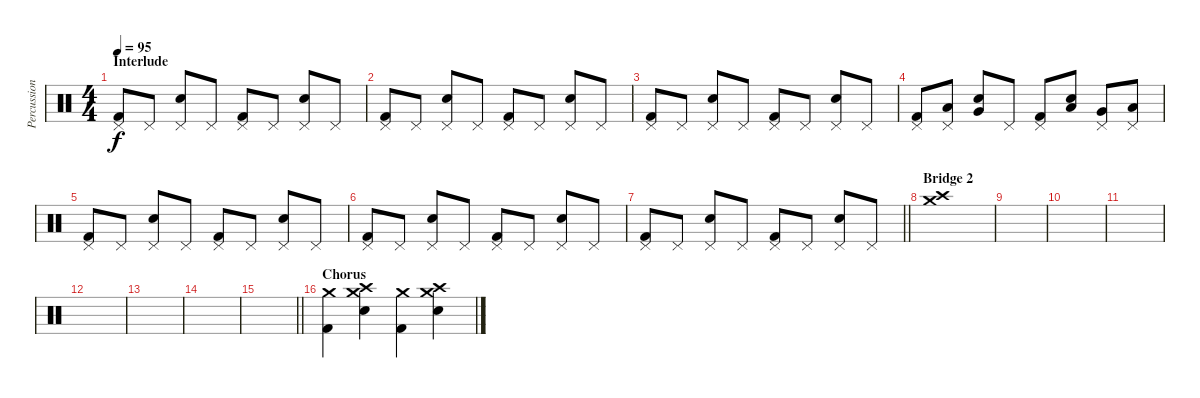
\track ("Percussion" "Percussion") {instrument percussion}
\staff {score}
\articulation defaults
\ts (4 4)
\section ("" "Interlude")
\tempo 95
\clef neutral
\ks c
("Pedal Hi-Hat (hit)" "Kick (hit) 2").8{dy f} "Pedal Hi-Hat (hit)".8 ("Pedal Hi-Hat (hit)" "Snare (hit) 2").8 "Pedal Hi-Hat (hit)".8 ("Pedal Hi-Hat (hit)" "Kick (hit) 2").8 "Pedal Hi-Hat (hit)".8 ("Pedal Hi-Hat (hit)" "Snare (hit) 2").8 "Pedal Hi-Hat (hit)".8 |
("Pedal Hi-Hat (hit)" "Kick (hit) 2").8 "Pedal Hi-Hat (hit)".8 ("Pedal Hi-Hat (hit)" "Snare (hit) 2").8 "Pedal Hi-Hat (hit)".8 ("Pedal Hi-Hat (hit)" "Kick (hit) 2").8 "Pedal Hi-Hat (hit)".8 ("Pedal Hi-Hat (hit)" "Snare (hit) 2").8 "Pedal Hi-Hat (hit)".8 |
("Pedal Hi-Hat (hit)" "Kick (hit) 2").8 "Pedal Hi-Hat (hit)".8 ("Pedal Hi-Hat (hit)" "Snare (hit) 2").8 "Pedal Hi-Hat (hit)".8 ("Pedal Hi-Hat (hit)" "Kick (hit) 2").8 "Pedal Hi-Hat (hit)".8 ("Pedal Hi-Hat (hit)" "Snare (hit) 2").8 "Pedal Hi-Hat (hit)".8 |
("Pedal Hi-Hat (hit)" "Kick (hit) 2").8 ("Pedal Hi-Hat (hit)" "Low Tom (hit)").8 ("Very Low Tom (hit)" "Snare (hit) 2").8 "Pedal Hi-Hat (hit)".8 ("Pedal Hi-Hat (hit)" "Kick (hit) 2").8 ("Low Tom (hit)" "Snare (hit) 2").8 ("Pedal Hi-Hat (hit)" "Very Low Tom (hit)").8 ("Pedal Hi-Hat (hit)" "Low Floor Tom (hit)").8 |
("Pedal Hi-Hat (hit)" "Kick (hit) 2").8 "Pedal Hi-Hat (hit)".8 ("Pedal Hi-Hat (hit)" "Snare (hit) 2").8 "Pedal Hi-Hat (hit)".8 ("Pedal Hi-Hat (hit)" "Kick (hit) 2").8 "Pedal Hi-Hat (hit)".8 ("Pedal Hi-Hat (hit)" "Snare (hit) 2").8 "Pedal Hi-Hat (hit)".8 |
("Pedal Hi-Hat (hit)" "Kick (hit) 2").8 "Pedal Hi-Hat (hit)".8 ("Pedal Hi-Hat (hit)" "Snare (hit) 2").8 "Pedal Hi-Hat (hit)".8 ("Pedal Hi-Hat (hit)" "Kick (hit) 2").8 "Pedal Hi-Hat (hit)".8 ("Pedal Hi-Hat (hit)" "Snare (hit) 2").8 "Pedal Hi-Hat (hit)".8 |
\barLineRight lightlight
("Pedal Hi-Hat (hit)" "Kick (hit) 2").8 "Pedal Hi-Hat (hit)".8 ("Pedal Hi-Hat (hit)" "Snare (hit) 2").8 "Pedal Hi-Hat (hit)".8 ("Pedal Hi-Hat (hit)" "Kick (hit) 2").8 "Pedal Hi-Hat (hit)".8 ("Pedal Hi-Hat (hit)" "Snare (hit) 2").8 "Pedal Hi-Hat (hit)".8 |
\section ("" "Bridge 2")
("Crash medium (hit)" "Crash high (hit)").1 |
|
|
|
|
|
|
\barLineRight lightlight
|
\section ("" "Chorus")
("Crash medium (hit)" "Kick (hit) 2").4 ("Crash high (hit)" "Crash medium (hit)" "Snare (hit) 2").4 ("Crash medium (hit)" "Kick (hit) 2").4 ("Crash high (hit)" "Crash medium (hit)" "Snare (hit) 2").4
